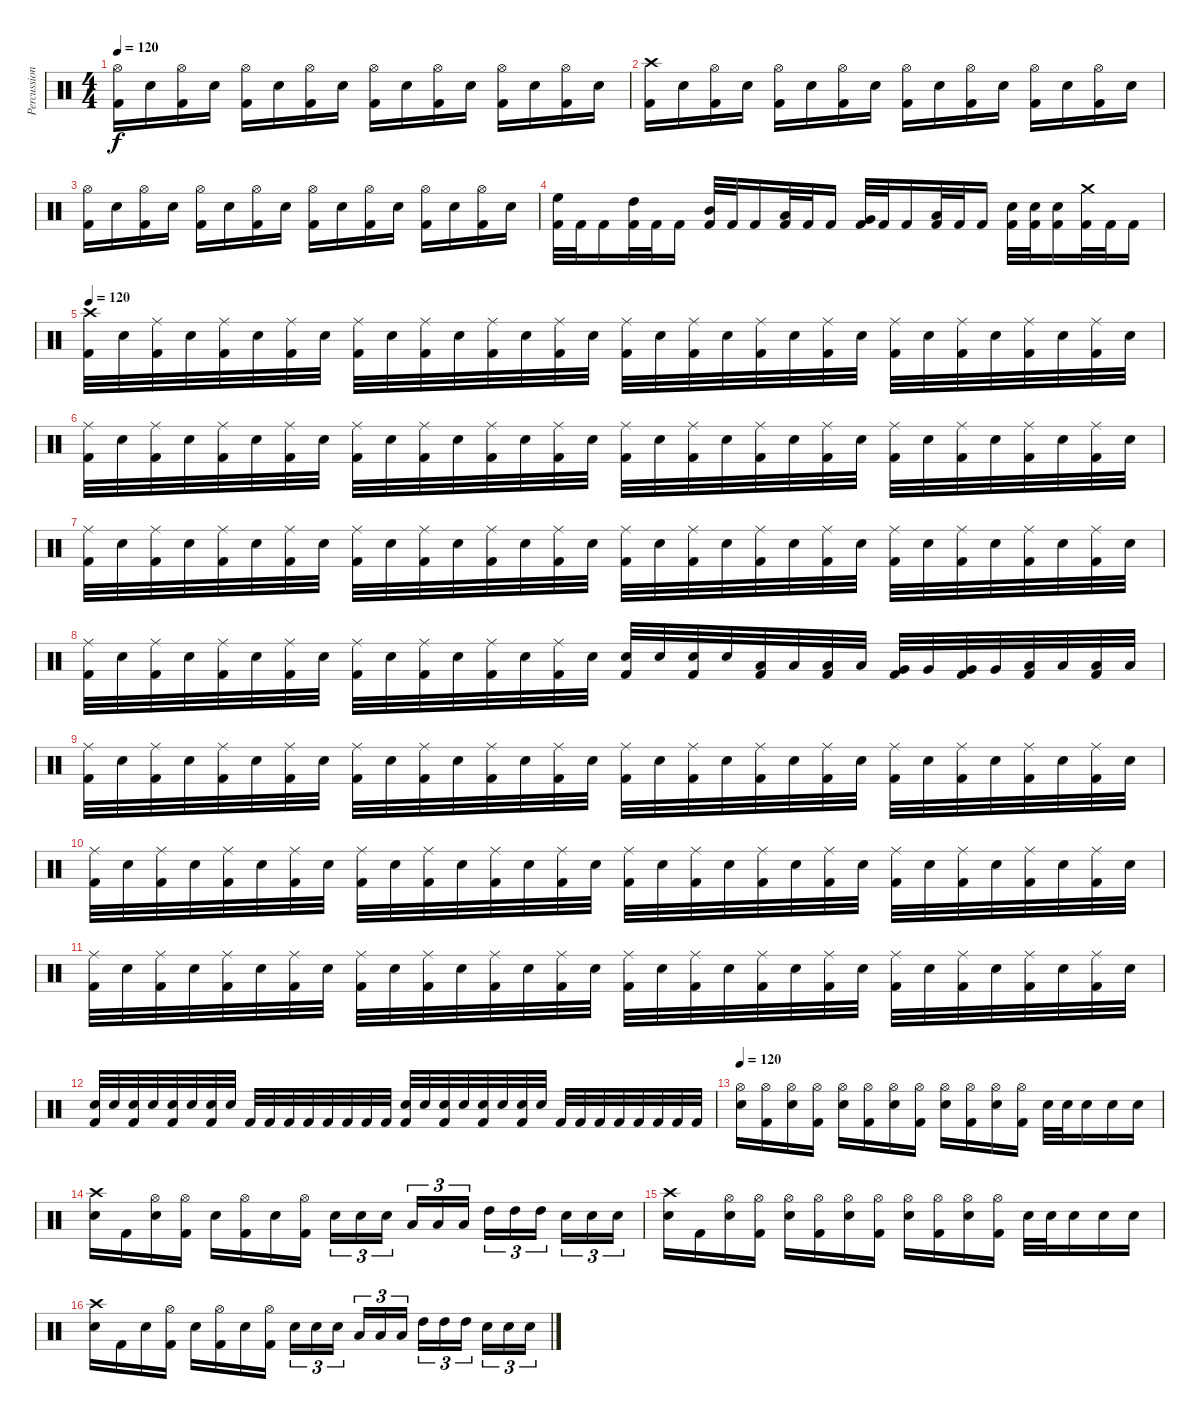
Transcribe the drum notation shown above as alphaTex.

\track ("Percussion" "Percussion") {instrument percussion}
\staff {score}
\articulation defaults
\ts (4 4)
\tempo 120
\clef neutral
\ks c
("Hi-Hat (open)" "Kick (hit) 2").16{dy f} "Electric Snare (hit)".16 ("Hi-Hat (open)" "Kick (hit) 2").16 "Electric Snare (hit)".16 ("Hi-Hat (open)" "Kick (hit) 2").16 "Electric Snare (hit)".16 ("Hi-Hat (open)" "Kick (hit) 2").16 "Electric Snare (hit)".16 ("Hi-Hat (open)" "Kick (hit) 2").16 "Electric Snare (hit)".16 ("Hi-Hat (open)" "Kick (hit) 2").16 "Electric Snare (hit)".16 ("Hi-Hat (open)" "Kick (hit) 2").16 "Electric Snare (hit)".16 ("Hi-Hat (open)" "Kick (hit) 2").16 "Electric Snare (hit)".16 |
("Crash high (hit)" "Kick (hit) 2").16 "Electric Snare (hit)".16 ("Hi-Hat (open)" "Kick (hit) 2").16 "Electric Snare (hit)".16 ("Hi-Hat (open)" "Kick (hit) 2").16 "Electric Snare (hit)".16 ("Hi-Hat (open)" "Kick (hit) 2").16 "Electric Snare (hit)".16 ("Hi-Hat (open)" "Kick (hit) 2").16 "Electric Snare (hit)".16 ("Hi-Hat (open)" "Kick (hit) 2").16 "Electric Snare (hit)".16 ("Hi-Hat (open)" "Kick (hit) 2").16 "Electric Snare (hit)".16 ("Hi-Hat (open)" "Kick (hit) 2").16 "Electric Snare (hit)".16 |
("Hi-Hat (open)" "Kick (hit) 2").16 "Electric Snare (hit)".16 ("Hi-Hat (open)" "Kick (hit) 2").16 "Electric Snare (hit)".16 ("Hi-Hat (open)" "Kick (hit) 2").16 "Electric Snare (hit)".16 ("Hi-Hat (open)" "Kick (hit) 2").16 "Electric Snare (hit)".16 ("Hi-Hat (open)" "Kick (hit) 2").16 "Electric Snare (hit)".16 ("Hi-Hat (open)" "Kick (hit) 2").16 "Electric Snare (hit)".16 ("Hi-Hat (open)" "Kick (hit) 2").16 "Electric Snare (hit)".16 ("Hi-Hat (open)" "Kick (hit) 2").16 "Electric Snare (hit)".16 |
("High Floor Tom (hit)" "Kick (hit) 2").32 "Kick (hit) 2".32 "Kick (hit) 2".16 ("High Tom (hit)" "Kick (hit) 2").32 "Kick (hit) 2".32 "Kick (hit) 2".16 ("Mid Tom (hit)" "Kick (hit) 2").32 "Kick (hit) 2".32 "Kick (hit) 2".16 ("Low Tom (hit)" "Kick (hit) 2").32 "Kick (hit) 2".32 "Kick (hit) 2".16 ("Very Low Tom (hit)" "Kick (hit) 2").32 "Kick (hit) 2".32 "Kick (hit) 2".16 ("Low Floor Tom (hit)" "Kick (hit) 2").32 "Kick (hit) 2".32 "Kick (hit) 2".16 ("Electric Snare (hit)" "Kick (hit) 2").32 ("Electric Snare (hit)" "Kick (hit) 2").32 ("Electric Snare (hit)" "Kick (hit) 2").16 ("Crash medium (hit)" "Kick (hit) 2").32 "Kick (hit) 2".32 "Kick (hit) 2".16 |
\tempo 120
("Crash high (hit)" "Kick (hit) 2").32 "Electric Snare (hit)".32 ("Ride (middle)" "Kick (hit) 2").32 "Electric Snare (hit)".32 ("Ride (middle)" "Kick (hit) 2").32 "Electric Snare (hit)".32 ("Ride (middle)" "Kick (hit) 2").32 "Electric Snare (hit)".32 ("Ride (middle)" "Kick (hit) 2").32 "Electric Snare (hit)".32 ("Ride (middle)" "Kick (hit) 2").32 "Electric Snare (hit)".32 ("Ride (middle)" "Kick (hit) 2").32 "Electric Snare (hit)".32 ("Ride (middle)" "Kick (hit) 2").32 "Electric Snare (hit)".32 ("Ride (middle)" "Kick (hit) 2").32 "Electric Snare (hit)".32 ("Ride (middle)" "Kick (hit) 2").32 "Electric Snare (hit)".32 ("Ride (middle)" "Kick (hit) 2").32 "Electric Snare (hit)".32 ("Ride (middle)" "Kick (hit) 2").32 "Electric Snare (hit)".32 ("Ride (middle)" "Kick (hit) 2").32 "Electric Snare (hit)".32 ("Ride (middle)" "Kick (hit) 2").32 "Electric Snare (hit)".32 ("Ride (middle)" "Kick (hit) 2").32 "Electric Snare (hit)".32 ("Ride (middle)" "Kick (hit) 2").32 "Electric Snare (hit)".32 |
("Ride (middle)" "Kick (hit) 2").32 "Electric Snare (hit)".32 ("Ride (middle)" "Kick (hit) 2").32 "Electric Snare (hit)".32 ("Ride (middle)" "Kick (hit) 2").32 "Electric Snare (hit)".32 ("Ride (middle)" "Kick (hit) 2").32 "Electric Snare (hit)".32 ("Ride (middle)" "Kick (hit) 2").32 "Electric Snare (hit)".32 ("Ride (middle)" "Kick (hit) 2").32 "Electric Snare (hit)".32 ("Ride (middle)" "Kick (hit) 2").32 "Electric Snare (hit)".32 ("Ride (middle)" "Kick (hit) 2").32 "Electric Snare (hit)".32 ("Ride (middle)" "Kick (hit) 2").32 "Electric Snare (hit)".32 ("Ride (middle)" "Kick (hit) 2").32 "Electric Snare (hit)".32 ("Ride (middle)" "Kick (hit) 2").32 "Electric Snare (hit)".32 ("Ride (middle)" "Kick (hit) 2").32 "Electric Snare (hit)".32 ("Ride (middle)" "Kick (hit) 2").32 "Electric Snare (hit)".32 ("Ride (middle)" "Kick (hit) 2").32 "Electric Snare (hit)".32 ("Ride (middle)" "Kick (hit) 2").32 "Electric Snare (hit)".32 ("Ride (middle)" "Kick (hit) 2").32 "Electric Snare (hit)".32 |
("Ride (middle)" "Kick (hit) 2").32 "Electric Snare (hit)".32 ("Ride (middle)" "Kick (hit) 2").32 "Electric Snare (hit)".32 ("Ride (middle)" "Kick (hit) 2").32 "Electric Snare (hit)".32 ("Ride (middle)" "Kick (hit) 2").32 "Electric Snare (hit)".32 ("Ride (middle)" "Kick (hit) 2").32 "Electric Snare (hit)".32 ("Ride (middle)" "Kick (hit) 2").32 "Electric Snare (hit)".32 ("Ride (middle)" "Kick (hit) 2").32 "Electric Snare (hit)".32 ("Ride (middle)" "Kick (hit) 2").32 "Electric Snare (hit)".32 ("Ride (middle)" "Kick (hit) 2").32 "Electric Snare (hit)".32 ("Ride (middle)" "Kick (hit) 2").32 "Electric Snare (hit)".32 ("Ride (middle)" "Kick (hit) 2").32 "Electric Snare (hit)".32 ("Ride (middle)" "Kick (hit) 2").32 "Electric Snare (hit)".32 ("Ride (middle)" "Kick (hit) 2").32 "Electric Snare (hit)".32 ("Ride (middle)" "Kick (hit) 2").32 "Electric Snare (hit)".32 ("Ride (middle)" "Kick (hit) 2").32 "Electric Snare (hit)".32 ("Ride (middle)" "Kick (hit) 2").32 "Electric Snare (hit)".32 |
("Ride (middle)" "Kick (hit) 2").32 "Electric Snare (hit)".32 ("Ride (middle)" "Kick (hit) 2").32 "Electric Snare (hit)".32 ("Ride (middle)" "Kick (hit) 2").32 "Electric Snare (hit)".32 ("Ride (middle)" "Kick (hit) 2").32 "Electric Snare (hit)".32 ("Ride (middle)" "Kick (hit) 2").32 "Electric Snare (hit)".32 ("Ride (middle)" "Kick (hit) 2").32 "Electric Snare (hit)".32 ("Ride (middle)" "Kick (hit) 2").32 "Electric Snare (hit)".32 ("Ride (middle)" "Kick (hit) 2").32 "Electric Snare (hit)".32 ("Electric Snare (hit)" "Kick (hit) 2").32 "Electric Snare (hit)".32 ("Electric Snare (hit)" "Kick (hit) 2").32 "Electric Snare (hit)".32 ("Low Tom (hit)" "Kick (hit) 2").32 "Low Tom (hit)".32 ("Low Tom (hit)" "Kick (hit) 2").32 "Low Tom (hit)".32 ("Very Low Tom (hit)" "Kick (hit) 2").32 "Very Low Tom (hit)".32 ("Very Low Tom (hit)" "Kick (hit) 2").32 "Very Low Tom (hit)".32 ("Low Floor Tom (hit)" "Kick (hit) 2").32 "Low Floor Tom (hit)".32 ("Low Floor Tom (hit)" "Kick (hit) 2").32 "Low Floor Tom (hit)".32 |
("Ride (middle)" "Kick (hit) 2").32 "Electric Snare (hit)".32 ("Ride (middle)" "Kick (hit) 2").32 "Electric Snare (hit)".32 ("Ride (middle)" "Kick (hit) 2").32 "Electric Snare (hit)".32 ("Ride (middle)" "Kick (hit) 2").32 "Electric Snare (hit)".32 ("Ride (middle)" "Kick (hit) 2").32 "Electric Snare (hit)".32 ("Ride (middle)" "Kick (hit) 2").32 "Electric Snare (hit)".32 ("Ride (middle)" "Kick (hit) 2").32 "Electric Snare (hit)".32 ("Ride (middle)" "Kick (hit) 2").32 "Electric Snare (hit)".32 ("Ride (middle)" "Kick (hit) 2").32 "Electric Snare (hit)".32 ("Ride (middle)" "Kick (hit) 2").32 "Electric Snare (hit)".32 ("Ride (middle)" "Kick (hit) 2").32 "Electric Snare (hit)".32 ("Ride (middle)" "Kick (hit) 2").32 "Electric Snare (hit)".32 ("Ride (middle)" "Kick (hit) 2").32 "Electric Snare (hit)".32 ("Ride (middle)" "Kick (hit) 2").32 "Electric Snare (hit)".32 ("Ride (middle)" "Kick (hit) 2").32 "Electric Snare (hit)".32 ("Ride (middle)" "Kick (hit) 2").32 "Electric Snare (hit)".32 |
("Ride (middle)" "Kick (hit) 2").32 "Electric Snare (hit)".32 ("Ride (middle)" "Kick (hit) 2").32 "Electric Snare (hit)".32 ("Ride (middle)" "Kick (hit) 2").32 "Electric Snare (hit)".32 ("Ride (middle)" "Kick (hit) 2").32 "Electric Snare (hit)".32 ("Ride (middle)" "Kick (hit) 2").32 "Electric Snare (hit)".32 ("Ride (middle)" "Kick (hit) 2").32 "Electric Snare (hit)".32 ("Ride (middle)" "Kick (hit) 2").32 "Electric Snare (hit)".32 ("Ride (middle)" "Kick (hit) 2").32 "Electric Snare (hit)".32 ("Ride (middle)" "Kick (hit) 2").32 "Electric Snare (hit)".32 ("Ride (middle)" "Kick (hit) 2").32 "Electric Snare (hit)".32 ("Ride (middle)" "Kick (hit) 2").32 "Electric Snare (hit)".32 ("Ride (middle)" "Kick (hit) 2").32 "Electric Snare (hit)".32 ("Ride (middle)" "Kick (hit) 2").32 "Electric Snare (hit)".32 ("Ride (middle)" "Kick (hit) 2").32 "Electric Snare (hit)".32 ("Ride (middle)" "Kick (hit) 2").32 "Electric Snare (hit)".32 ("Ride (middle)" "Kick (hit) 2").32 "Electric Snare (hit)".32 |
("Ride (middle)" "Kick (hit) 2").32 "Electric Snare (hit)".32 ("Ride (middle)" "Kick (hit) 2").32 "Electric Snare (hit)".32 ("Ride (middle)" "Kick (hit) 2").32 "Electric Snare (hit)".32 ("Ride (middle)" "Kick (hit) 2").32 "Electric Snare (hit)".32 ("Ride (middle)" "Kick (hit) 2").32 "Electric Snare (hit)".32 ("Ride (middle)" "Kick (hit) 2").32 "Electric Snare (hit)".32 ("Ride (middle)" "Kick (hit) 2").32 "Electric Snare (hit)".32 ("Ride (middle)" "Kick (hit) 2").32 "Electric Snare (hit)".32 ("Ride (middle)" "Kick (hit) 2").32 "Electric Snare (hit)".32 ("Ride (middle)" "Kick (hit) 2").32 "Electric Snare (hit)".32 ("Ride (middle)" "Kick (hit) 2").32 "Electric Snare (hit)".32 ("Ride (middle)" "Kick (hit) 2").32 "Electric Snare (hit)".32 ("Ride (middle)" "Kick (hit) 2").32 "Electric Snare (hit)".32 ("Ride (middle)" "Kick (hit) 2").32 "Electric Snare (hit)".32 ("Ride (middle)" "Kick (hit) 2").32 "Electric Snare (hit)".32 ("Ride (middle)" "Kick (hit) 2").32 "Electric Snare (hit)".32 |
("Electric Snare (hit)" "Kick (hit) 2").32 "Electric Snare (hit)".32 ("Electric Snare (hit)" "Kick (hit) 2").32 "Electric Snare (hit)".32 ("Electric Snare (hit)" "Kick (hit) 2").32 "Electric Snare (hit)".32 ("Electric Snare (hit)" "Kick (hit) 2").32 "Electric Snare (hit)".32 "Kick (hit) 2".32 "Kick (hit) 2".32 "Kick (hit) 2".32 "Kick (hit) 2".32 "Kick (hit) 2".32 "Kick (hit) 2".32 "Kick (hit) 2".32 "Kick (hit) 2".32 ("Electric Snare (hit)" "Kick (hit) 2").32 "Electric Snare (hit)".32 ("Electric Snare (hit)" "Kick (hit) 2").32 "Electric Snare (hit)".32 ("Electric Snare (hit)" "Kick (hit) 2").32 "Electric Snare (hit)".32 ("Electric Snare (hit)" "Kick (hit) 2").32 "Electric Snare (hit)".32 "Kick (hit) 2".32 "Kick (hit) 2".32 "Kick (hit) 2".32 "Kick (hit) 2".32 "Kick (hit) 2".32 "Kick (hit) 2".32 "Kick (hit) 2".32 "Kick (hit) 2".32 |
\tempo 120
("Hi-Hat (open)" "Electric Snare (hit)").16 ("Hi-Hat (open)" "Kick (hit) 2").16 ("Hi-Hat (open)" "Electric Snare (hit)").16 ("Hi-Hat (open)" "Kick (hit) 2").16 ("Hi-Hat (open)" "Electric Snare (hit)").16 ("Hi-Hat (open)" "Kick (hit) 2").16 ("Hi-Hat (open)" "Electric Snare (hit)").16 ("Hi-Hat (open)" "Kick (hit) 2").16 ("Hi-Hat (open)" "Electric Snare (hit)").16 ("Hi-Hat (open)" "Kick (hit) 2").16 ("Hi-Hat (open)" "Electric Snare (hit)").16 ("Hi-Hat (open)" "Kick (hit) 2").16 "Electric Snare (hit)".32 "Electric Snare (hit)".32 "Electric Snare (hit)".16 "Electric Snare (hit)".16 "Electric Snare (hit)".16 |
("Crash high (hit)" "Electric Snare (hit)").16 "Kick (hit) 2".16 ("Hi-Hat (open)" "Electric Snare (hit)").16 ("Hi-Hat (open)" "Kick (hit) 2").16 "Electric Snare (hit)".16 ("Hi-Hat (open)" "Kick (hit) 2").16 "Electric Snare (hit)".16 ("Hi-Hat (open)" "Kick (hit) 2").16 "Electric Snare (hit)".16{tu (3 2)} "Electric Snare (hit)".16{tu (3 2)} "Electric Snare (hit)".16{tu (3 2)} "Low Tom (hit)".16{tu (3 2)} "Low Tom (hit)".16{tu (3 2)} "Low Tom (hit)".16{tu (3 2)} "High Tom (hit)".16{tu (3 2)} "High Tom (hit)".16{tu (3 2)} "High Tom (hit)".16{tu (3 2)} "Electric Snare (hit)".16{tu (3 2)} "Electric Snare (hit)".16{tu (3 2)} "Electric Snare (hit)".16{tu (3 2)} |
("Crash high (hit)" "Electric Snare (hit)").16 "Kick (hit) 2".16 ("Hi-Hat (open)" "Electric Snare (hit)").16 ("Hi-Hat (open)" "Kick (hit) 2").16 ("Hi-Hat (open)" "Electric Snare (hit)").16 ("Hi-Hat (open)" "Kick (hit) 2").16 ("Hi-Hat (open)" "Electric Snare (hit)").16 ("Hi-Hat (open)" "Kick (hit) 2").16 ("Hi-Hat (open)" "Electric Snare (hit)").16 ("Hi-Hat (open)" "Kick (hit) 2").16 ("Hi-Hat (open)" "Electric Snare (hit)").16 ("Hi-Hat (open)" "Kick (hit) 2").16 "Electric Snare (hit)".32 "Electric Snare (hit)".32 "Electric Snare (hit)".16 "Electric Snare (hit)".16 "Electric Snare (hit)".16 |
("Crash high (hit)" "Electric Snare (hit)").16 "Kick (hit) 2".16 "Electric Snare (hit)".16 ("Hi-Hat (open)" "Kick (hit) 2").16 "Electric Snare (hit)".16 ("Hi-Hat (open)" "Kick (hit) 2").16 "Electric Snare (hit)".16 ("Hi-Hat (open)" "Kick (hit) 2").16 "Electric Snare (hit)".16{tu (3 2)} "Electric Snare (hit)".16{tu (3 2)} "Electric Snare (hit)".16{tu (3 2)} "Low Tom (hit)".16{tu (3 2)} "Low Tom (hit)".16{tu (3 2)} "Low Tom (hit)".16{tu (3 2)} "High Tom (hit)".16{tu (3 2)} "High Tom (hit)".16{tu (3 2)} "High Tom (hit)".16{tu (3 2)} "Electric Snare (hit)".16{tu (3 2)} "Electric Snare (hit)".16{tu (3 2)} "Electric Snare (hit)".16{tu (3 2)}
